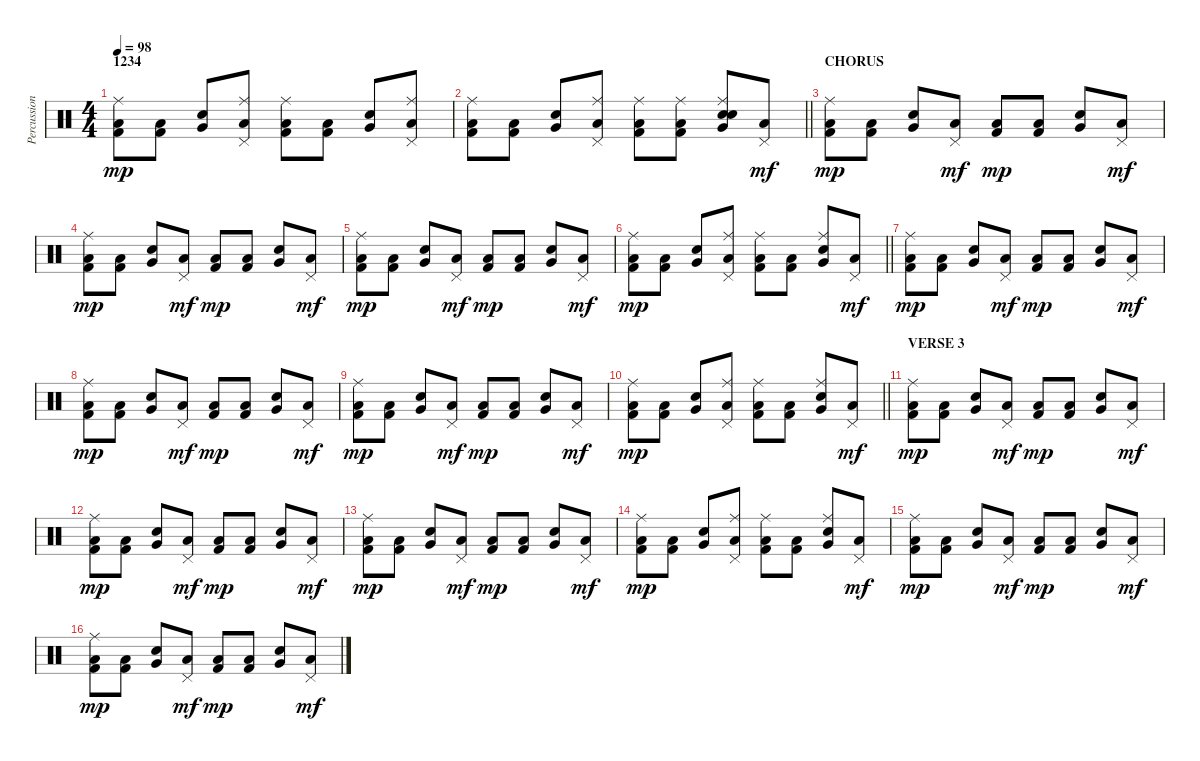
\track ("Percussion" "Percussion") {instrument percussion}
\staff {score}
\articulation defaults
\ts (4 4)
\section ("" "1234")
\tempo 98
\clef neutral
\ks c
("Kick (hit) 2" "Low Floor Tom (hit)" "Ride (middle)").8{dy mp} ("Kick (hit) 2" "Low Floor Tom (hit)").8 ("Snare (hit) 2" "Very Low Tom (hit)").8 ("Low Floor Tom (hit)" "Pedal Hi-Hat (hit)" "Ride (middle)").8 ("Kick (hit) 2" "Low Floor Tom (hit)" "Ride (middle)").8 ("Kick (hit) 2" "Low Floor Tom (hit)").8 ("Snare (hit) 2" "Very Low Tom (hit)").8 ("Low Floor Tom (hit)" "Pedal Hi-Hat (hit)" "Ride (middle)").8 |
\barLineRight lightlight
("Kick (hit) 2" "Low Floor Tom (hit)" "Ride (middle)").8 ("Kick (hit) 2" "Low Floor Tom (hit)").8 ("Snare (hit) 2" "Very Low Tom (hit)").8 ("Low Floor Tom (hit)" "Pedal Hi-Hat (hit)" "Ride (middle)").8 ("Kick (hit) 2" "Low Floor Tom (hit)" "Ride (middle)").8 ("Kick (hit) 2" "Low Floor Tom (hit)" "Ride (middle)").8 ("Snare (hit) 2" "Electric Snare (hit)" "Very Low Tom (hit)" "Ride (middle)").8 ("Low Floor Tom (hit)" "Pedal Hi-Hat (hit)").8{dy mf} |
\section ("" "CHORUS")
("Kick (hit) 2" "Low Floor Tom (hit)" "Ride (middle)").8{dy mp} ("Kick (hit) 2" "Low Floor Tom (hit)").8 ("Snare (hit) 2" "Very Low Tom (hit)").8 ("Low Floor Tom (hit)" "Pedal Hi-Hat (hit)").8{dy mf} ("Kick (hit) 2" "Low Floor Tom (hit)").8{dy mp} ("Kick (hit) 2" "Low Floor Tom (hit)").8 ("Snare (hit) 2" "Very Low Tom (hit)").8 ("Low Floor Tom (hit)" "Pedal Hi-Hat (hit)").8{dy mf} |
("Kick (hit) 2" "Low Floor Tom (hit)" "Ride (middle)").8{dy mp} ("Kick (hit) 2" "Low Floor Tom (hit)").8 ("Snare (hit) 2" "Very Low Tom (hit)").8 ("Low Floor Tom (hit)" "Pedal Hi-Hat (hit)").8{dy mf} ("Kick (hit) 2" "Low Floor Tom (hit)").8{dy mp} ("Kick (hit) 2" "Low Floor Tom (hit)").8 ("Snare (hit) 2" "Very Low Tom (hit)").8 ("Low Floor Tom (hit)" "Pedal Hi-Hat (hit)").8{dy mf} |
("Kick (hit) 2" "Low Floor Tom (hit)" "Ride (middle)").8{dy mp} ("Kick (hit) 2" "Low Floor Tom (hit)").8 ("Snare (hit) 2" "Very Low Tom (hit)").8 ("Low Floor Tom (hit)" "Pedal Hi-Hat (hit)").8{dy mf} ("Kick (hit) 2" "Low Floor Tom (hit)").8{dy mp} ("Kick (hit) 2" "Low Floor Tom (hit)").8 ("Snare (hit) 2" "Very Low Tom (hit)").8 ("Low Floor Tom (hit)" "Pedal Hi-Hat (hit)").8{dy mf} |
\barLineRight lightlight
("Kick (hit) 2" "Low Floor Tom (hit)" "Ride (middle)").8{dy mp} ("Kick (hit) 2" "Low Floor Tom (hit)").8 ("Snare (hit) 2" "Very Low Tom (hit)").8 ("Low Floor Tom (hit)" "Pedal Hi-Hat (hit)" "Ride (middle)").8 ("Kick (hit) 2" "Low Floor Tom (hit)" "Ride (middle)").8 ("Kick (hit) 2" "Low Floor Tom (hit)").8 ("Snare (hit) 2" "Very Low Tom (hit)" "Ride (middle)").8 ("Low Floor Tom (hit)" "Pedal Hi-Hat (hit)").8{dy mf} |
("Kick (hit) 2" "Low Floor Tom (hit)" "Ride (middle)").8{dy mp} ("Kick (hit) 2" "Low Floor Tom (hit)").8 ("Snare (hit) 2" "Very Low Tom (hit)").8 ("Low Floor Tom (hit)" "Pedal Hi-Hat (hit)").8{dy mf} ("Kick (hit) 2" "Low Floor Tom (hit)").8{dy mp} ("Kick (hit) 2" "Low Floor Tom (hit)").8 ("Snare (hit) 2" "Very Low Tom (hit)").8 ("Low Floor Tom (hit)" "Pedal Hi-Hat (hit)").8{dy mf} |
("Kick (hit) 2" "Low Floor Tom (hit)" "Ride (middle)").8{dy mp} ("Kick (hit) 2" "Low Floor Tom (hit)").8 ("Snare (hit) 2" "Very Low Tom (hit)").8 ("Low Floor Tom (hit)" "Pedal Hi-Hat (hit)").8{dy mf} ("Kick (hit) 2" "Low Floor Tom (hit)").8{dy mp} ("Kick (hit) 2" "Low Floor Tom (hit)").8 ("Snare (hit) 2" "Very Low Tom (hit)").8 ("Low Floor Tom (hit)" "Pedal Hi-Hat (hit)").8{dy mf} |
("Kick (hit) 2" "Low Floor Tom (hit)" "Ride (middle)").8{dy mp} ("Kick (hit) 2" "Low Floor Tom (hit)").8 ("Snare (hit) 2" "Very Low Tom (hit)").8 ("Low Floor Tom (hit)" "Pedal Hi-Hat (hit)").8{dy mf} ("Kick (hit) 2" "Low Floor Tom (hit)").8{dy mp} ("Kick (hit) 2" "Low Floor Tom (hit)").8 ("Snare (hit) 2" "Very Low Tom (hit)").8 ("Low Floor Tom (hit)" "Pedal Hi-Hat (hit)").8{dy mf} |
\barLineRight lightlight
("Kick (hit) 2" "Low Floor Tom (hit)" "Ride (middle)").8{dy mp} ("Kick (hit) 2" "Low Floor Tom (hit)").8 ("Snare (hit) 2" "Very Low Tom (hit)").8 ("Low Floor Tom (hit)" "Pedal Hi-Hat (hit)" "Ride (middle)").8 ("Kick (hit) 2" "Low Floor Tom (hit)" "Ride (middle)").8 ("Kick (hit) 2" "Low Floor Tom (hit)").8 ("Snare (hit) 2" "Very Low Tom (hit)" "Ride (middle)").8 ("Low Floor Tom (hit)" "Pedal Hi-Hat (hit)").8{dy mf} |
\section ("" "VERSE 3")
("Kick (hit) 2" "Low Floor Tom (hit)" "Ride (middle)").8{dy mp} ("Kick (hit) 2" "Low Floor Tom (hit)").8 ("Snare (hit) 2" "Very Low Tom (hit)").8 ("Low Floor Tom (hit)" "Pedal Hi-Hat (hit)").8{dy mf} ("Kick (hit) 2" "Low Floor Tom (hit)").8{dy mp} ("Kick (hit) 2" "Low Floor Tom (hit)").8 ("Snare (hit) 2" "Very Low Tom (hit)").8 ("Low Floor Tom (hit)" "Pedal Hi-Hat (hit)").8{dy mf} |
("Kick (hit) 2" "Low Floor Tom (hit)" "Ride (middle)").8{dy mp} ("Kick (hit) 2" "Low Floor Tom (hit)").8 ("Snare (hit) 2" "Very Low Tom (hit)").8 ("Low Floor Tom (hit)" "Pedal Hi-Hat (hit)").8{dy mf} ("Kick (hit) 2" "Low Floor Tom (hit)").8{dy mp} ("Kick (hit) 2" "Low Floor Tom (hit)").8 ("Snare (hit) 2" "Very Low Tom (hit)").8 ("Low Floor Tom (hit)" "Pedal Hi-Hat (hit)").8{dy mf} |
("Kick (hit) 2" "Low Floor Tom (hit)" "Ride (middle)").8{dy mp} ("Kick (hit) 2" "Low Floor Tom (hit)").8 ("Snare (hit) 2" "Very Low Tom (hit)").8 ("Low Floor Tom (hit)" "Pedal Hi-Hat (hit)").8{dy mf} ("Kick (hit) 2" "Low Floor Tom (hit)").8{dy mp} ("Kick (hit) 2" "Low Floor Tom (hit)").8 ("Snare (hit) 2" "Very Low Tom (hit)").8 ("Low Floor Tom (hit)" "Pedal Hi-Hat (hit)").8{dy mf} |
("Kick (hit) 2" "Low Floor Tom (hit)" "Ride (middle)").8{dy mp} ("Kick (hit) 2" "Low Floor Tom (hit)").8 ("Snare (hit) 2" "Very Low Tom (hit)").8 ("Low Floor Tom (hit)" "Pedal Hi-Hat (hit)" "Ride (middle)").8 ("Kick (hit) 2" "Low Floor Tom (hit)" "Ride (middle)").8 ("Kick (hit) 2" "Low Floor Tom (hit)").8 ("Snare (hit) 2" "Very Low Tom (hit)" "Ride (middle)").8 ("Low Floor Tom (hit)" "Pedal Hi-Hat (hit)").8{dy mf} |
("Kick (hit) 2" "Low Floor Tom (hit)" "Ride (middle)").8{dy mp} ("Kick (hit) 2" "Low Floor Tom (hit)").8 ("Snare (hit) 2" "Very Low Tom (hit)").8 ("Low Floor Tom (hit)" "Pedal Hi-Hat (hit)").8{dy mf} ("Kick (hit) 2" "Low Floor Tom (hit)").8{dy mp} ("Kick (hit) 2" "Low Floor Tom (hit)").8 ("Snare (hit) 2" "Very Low Tom (hit)").8 ("Low Floor Tom (hit)" "Pedal Hi-Hat (hit)").8{dy mf} |
("Kick (hit) 2" "Low Floor Tom (hit)" "Ride (middle)").8{dy mp} ("Kick (hit) 2" "Low Floor Tom (hit)").8 ("Snare (hit) 2" "Very Low Tom (hit)").8 ("Low Floor Tom (hit)" "Pedal Hi-Hat (hit)").8{dy mf} ("Kick (hit) 2" "Low Floor Tom (hit)").8{dy mp} ("Kick (hit) 2" "Low Floor Tom (hit)").8 ("Snare (hit) 2" "Very Low Tom (hit)").8 ("Low Floor Tom (hit)" "Pedal Hi-Hat (hit)").8{dy mf}
